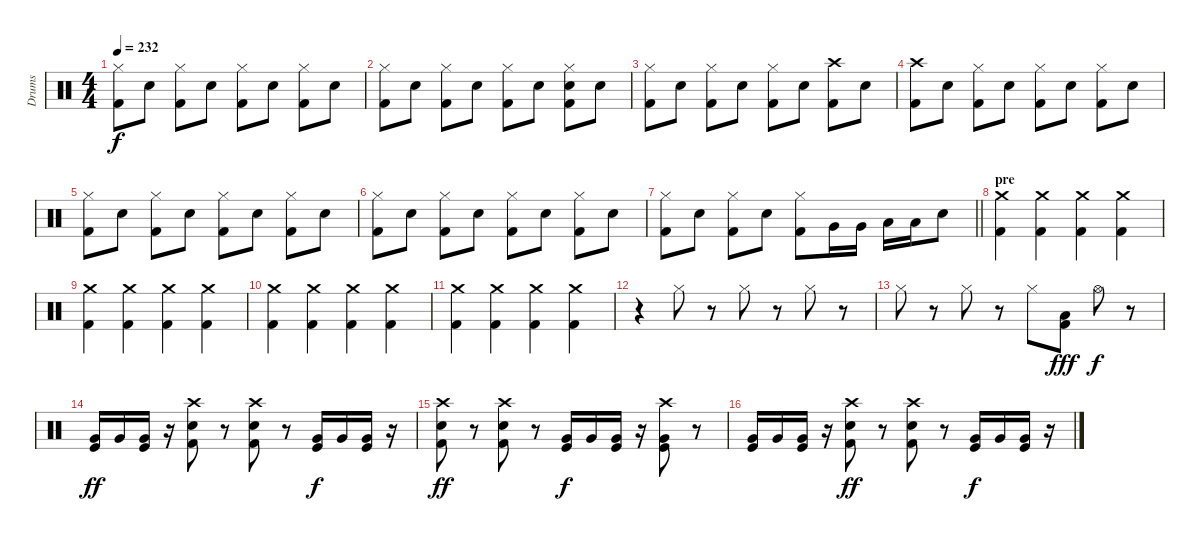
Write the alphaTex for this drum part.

\track ("Drums" "Drums") {instrument percussion}
\staff {score}
\articulation defaults
\ts (4 4)
\tempo 232
\clef neutral
\ks c
("Hi-Hat (closed)" "Kick (hit) 2").8{dy f} "Electric Snare (hit)".8 ("Hi-Hat (closed)" "Kick (hit) 2").8 "Electric Snare (hit)".8 ("Hi-Hat (closed)" "Kick (hit) 2").8 "Electric Snare (hit)".8 ("Hi-Hat (closed)" "Kick (hit) 2").8 "Electric Snare (hit)".8 |
("Hi-Hat (closed)" "Kick (hit) 2").8 "Electric Snare (hit)".8 ("Hi-Hat (closed)" "Kick (hit) 2").8 "Electric Snare (hit)".8 ("Hi-Hat (closed)" "Kick (hit) 2").8 "Electric Snare (hit)".8 ("Hi-Hat (closed)" "Snare (hit)" "Kick (hit) 2").8 "Electric Snare (hit)".8 |
("Hi-Hat (closed)" "Kick (hit) 2").8 "Electric Snare (hit)".8 ("Hi-Hat (closed)" "Kick (hit) 2").8 "Electric Snare (hit)".8 ("Hi-Hat (closed)" "Kick (hit) 2").8 "Electric Snare (hit)".8 ("Crash high (hit)" "Kick (hit) 2").8 "Electric Snare (hit)".8 |
("Crash high (hit)" "Kick (hit) 2").8 "Electric Snare (hit)".8 ("Hi-Hat (closed)" "Kick (hit) 2").8 "Electric Snare (hit)".8 ("Hi-Hat (closed)" "Kick (hit) 2").8 "Electric Snare (hit)".8 ("Hi-Hat (closed)" "Kick (hit) 2").8 "Electric Snare (hit)".8 |
("Hi-Hat (closed)" "Kick (hit) 2").8 "Electric Snare (hit)".8 ("Hi-Hat (closed)" "Kick (hit) 2").8 "Electric Snare (hit)".8 ("Hi-Hat (closed)" "Kick (hit) 2").8 "Electric Snare (hit)".8 ("Hi-Hat (closed)" "Kick (hit) 2").8 "Electric Snare (hit)".8 |
("Hi-Hat (closed)" "Kick (hit) 2").8 "Electric Snare (hit)".8 ("Hi-Hat (closed)" "Kick (hit) 2").8 "Electric Snare (hit)".8 ("Hi-Hat (closed)" "Kick (hit) 2").8 "Electric Snare (hit)".8 ("Hi-Hat (closed)" "Kick (hit) 2").8 "Electric Snare (hit)".8 |
\barLineRight lightlight
("Hi-Hat (closed)" "Kick (hit) 2").8 "Electric Snare (hit)".8 ("Hi-Hat (closed)" "Kick (hit) 2").8 "Electric Snare (hit)".8 ("Hi-Hat (closed)" "Kick (hit) 2").8 "Very Low Tom (hit)".16 "Very Low Tom (hit)".16 "Low Tom (hit)".16 "Low Tom (hit)".16 "Electric Snare (hit)".8 |
\section ("" "pre")
("Crash medium (hit)" "Kick (hit) 2").4 ("Crash medium (hit)" "Kick (hit) 2").4 ("Crash medium (hit)" "Kick (hit) 2").4 ("Crash medium (hit)" "Kick (hit) 2").4 |
("Crash medium (hit)" "Kick (hit) 2").4 ("Crash medium (hit)" "Kick (hit) 2").4 ("Crash medium (hit)" "Kick (hit) 2").4 ("Crash medium (hit)" "Kick (hit) 2").4 |
("Crash medium (hit)" "Kick (hit) 2").4 ("Crash medium (hit)" "Kick (hit) 2").4 ("Crash medium (hit)" "Kick (hit) 2").4 ("Crash medium (hit)" "Kick (hit) 2").4 |
("Crash medium (hit)" "Kick (hit) 2").4 ("Crash medium (hit)" "Kick (hit) 2").4 ("Crash medium (hit)" "Kick (hit) 2").4 ("Crash medium (hit)" "Kick (hit) 2").4 |
r.4 "Hi-Hat (closed)".8 r.8 "Hi-Hat (closed)".8 r.8 "Hi-Hat (closed)".8 r.8 |
"Hi-Hat (closed)".8 r.8 "Hi-Hat (closed)".8 r.8 "Hi-Hat (closed)".8 ("Low Floor Tom (hit)" "Kick (hit) 2").8{dy fff} "Hi-Hat (open)".8{dy f} r.8 |
("Very Low Tom (hit)" "Kick (hit)").16{dy ff} "Very Low Tom (hit)".16 ("Very Low Tom (hit)" "Kick (hit)").16 r.16 ("Crash high (hit)" "Electric Snare (hit)" "Kick (hit) 2").8 r.8 ("Crash high (hit)" "Electric Snare (hit)" "Kick (hit) 2").8 r.8 ("Very Low Tom (hit)" "Kick (hit)").16{dy f} "Very Low Tom (hit)".16 ("Very Low Tom (hit)" "Kick (hit)").16 r.16 |
("Crash high (hit)" "Electric Snare (hit)" "Kick (hit) 2").8{dy ff} r.8 ("Crash high (hit)" "Electric Snare (hit)" "Kick (hit) 2").8 r.8 ("Very Low Tom (hit)" "Kick (hit)").16{dy f} "Very Low Tom (hit)".16 ("Very Low Tom (hit)" "Kick (hit)").16 r.16 ("Crash high (hit)" "Very Low Tom (hit)" "Kick (hit)").8 r.8 |
("Very Low Tom (hit)" "Kick (hit)").16 "Very Low Tom (hit)".16 ("Very Low Tom (hit)" "Kick (hit)").16 r.16 ("Crash high (hit)" "Electric Snare (hit)" "Kick (hit) 2").8{dy ff} r.8 ("Crash high (hit)" "Electric Snare (hit)" "Kick (hit) 2").8 r.8 ("Very Low Tom (hit)" "Kick (hit)").16{dy f} "Very Low Tom (hit)".16 ("Very Low Tom (hit)" "Kick (hit)").16 r.16
